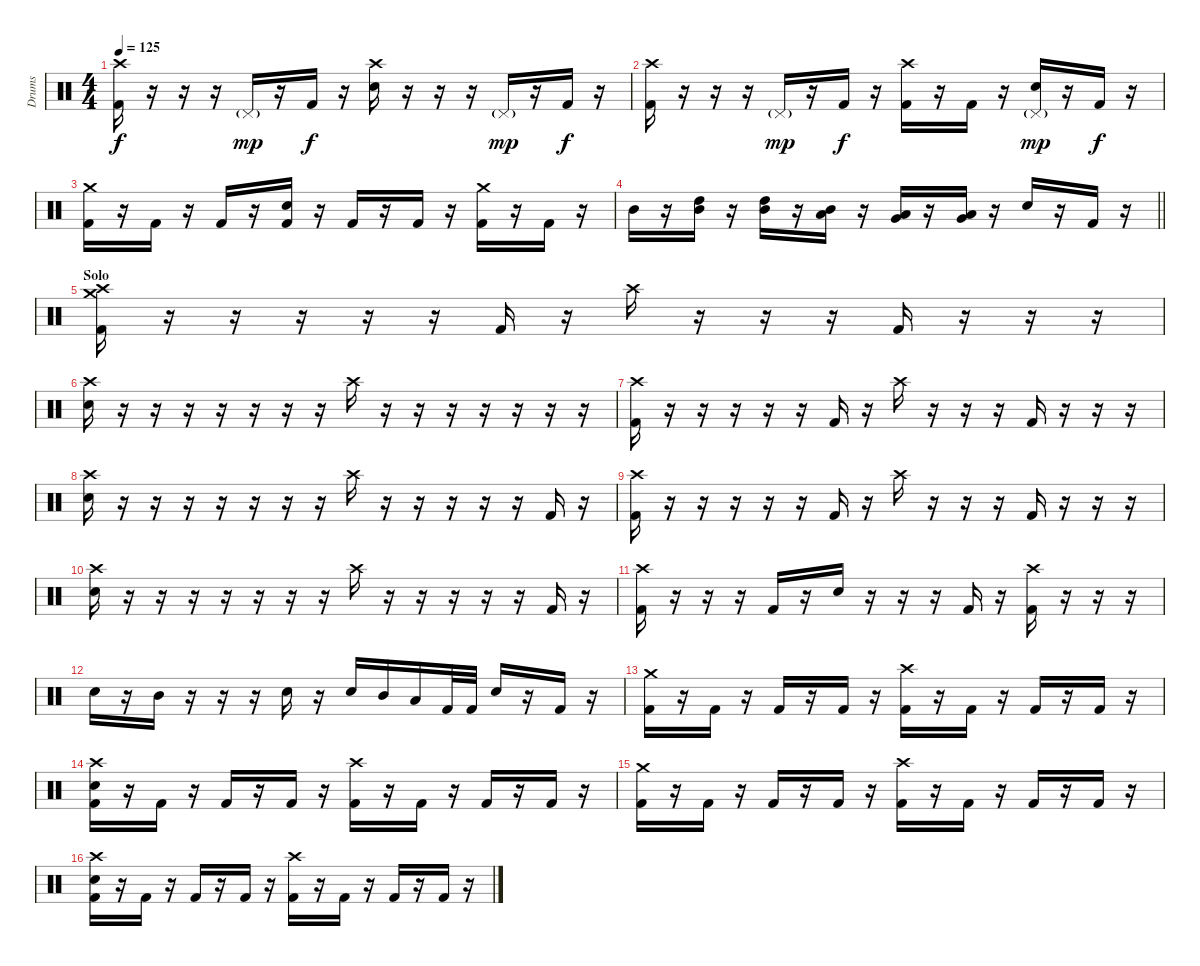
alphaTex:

\track ("Drums" "Drums") {instrument percussion}
\staff {score}
\articulation defaults
\ts (4 4)
\tempo 125
\clef neutral
\ks c
("Crash high (hit)" "Kick (hit) 2").16{dy f} r.16 r.16 r.16 "Pedal Hi-Hat (hit)"{g}.16{dy mp} r.16 "Kick (hit) 2".16{dy f} r.16 ("Crash high (hit)" "Electric Snare (hit)").16 r.16 r.16 r.16 "Pedal Hi-Hat (hit)"{g}.16{dy mp} r.16 "Kick (hit) 2".16{dy f} r.16 |
("Crash high (hit)" "Kick (hit) 2").16 r.16 r.16 r.16 "Pedal Hi-Hat (hit)"{g}.16{dy mp} r.16 "Kick (hit) 2".16{dy f} r.16 ("Crash high (hit)" "Kick (hit) 2").16 r.16 "Kick (hit) 2".16 r.16 ("Pedal Hi-Hat (hit)"{g} "Electric Snare (hit)").16{dy mp} r.16 "Kick (hit) 2".16{dy f} r.16 |
("Crash medium (hit)" "Kick (hit) 2").16 r.16 "Kick (hit) 2".16 r.16 "Kick (hit) 2".16 r.16 ("Electric Snare (hit)" "Kick (hit) 2").16 r.16 "Kick (hit) 2".16 r.16 "Kick (hit) 2".16 r.16 ("Crash medium (hit)" "Kick (hit) 2").16 r.16 "Kick (hit) 2".16 r.16 |
\barLineRight lightlight "Mid Tom (hit)".16
r.16 ("High Tom (hit)" "Mid Tom (hit)").16 r.16 ("High Tom (hit)" "Mid Tom (hit)").16 r.16 ("Mid Tom (hit)" "Low Tom (hit)").16 r.16 ("Low Tom (hit)" "Very Low Tom (hit)").16 r.16 ("Low Tom (hit)" "Very Low Tom (hit)").16 r.16 "Electric Snare (hit)".16 r.16 "Kick (hit) 2".16 r.16 |
\section ("" "Solo ")
("Crash medium (hit)" "Crash high (hit)" "Kick (hit) 2").16 r.16 r.16 r.16 r.16 r.16 "Kick (hit) 2".16 r.16 "Crash high (hit)".16 r.16 r.16 r.16 "Kick (hit) 2".16 r.16 r.16 r.16 |
("Crash high (hit)" "Electric Snare (hit)").16 r.16 r.16 r.16 r.16 r.16 r.16 r.16 "Crash high (hit)".16 r.16 r.16 r.16 r.16 r.16 r.16 r.16 |
("Crash high (hit)" "Kick (hit) 2").16 r.16 r.16 r.16 r.16 r.16 "Kick (hit) 2".16 r.16 "Crash high (hit)".16 r.16 r.16 r.16 "Kick (hit) 2".16 r.16 r.16 r.16 |
("Crash high (hit)" "Electric Snare (hit)").16 r.16 r.16 r.16 r.16 r.16 r.16 r.16 "Crash high (hit)".16 r.16 r.16 r.16 r.16 r.16 "Kick (hit) 2".16 r.16 |
("Crash high (hit)" "Kick (hit) 2").16 r.16 r.16 r.16 r.16 r.16 "Kick (hit) 2".16 r.16 "Crash high (hit)".16 r.16 r.16 r.16 "Kick (hit) 2".16 r.16 r.16 r.16 |
("Crash high (hit)" "Electric Snare (hit)").16 r.16 r.16 r.16 r.16 r.16 r.16 r.16 "Crash high (hit)".16 r.16 r.16 r.16 r.16 r.16 "Kick (hit) 2".16 r.16 |
("Crash high (hit)" "Kick (hit) 2").16 r.16 r.16 r.16 "Kick (hit) 2".16 r.16 "Electric Snare (hit)".16 r.16 r.16 r.16 "Kick (hit) 2".16 r.16 ("Crash high (hit)" "Kick (hit) 2").16 r.16 r.16 r.16 |
"Electric Snare (hit)".16 r.16 "Mid Tom (hit)".16 r.16 r.16 r.16 "Electric Snare (hit)".16 r.16 "Electric Snare (hit)".16 "Mid Tom (hit)".16 "Low Tom (hit)".16 "Kick (hit) 2".32 "Kick (hit) 2".32 "Electric Snare (hit)".16 r.16 "Kick (hit) 2".16 r.16 |
("Crash medium (hit)" "Kick (hit) 2").16 r.16 "Kick (hit) 2".16 r.16 "Kick (hit) 2".16 r.16 "Kick (hit) 2".16 r.16 ("Crash high (hit)" "Kick (hit) 2").16 r.16 "Kick (hit) 2".16 r.16 "Kick (hit) 2".16 r.16 "Kick (hit) 2".16 r.16 |
("Crash high (hit)" "Electric Snare (hit)" "Kick (hit) 2").16 r.16 "Kick (hit) 2".16 r.16 "Kick (hit) 2".16 r.16 "Kick (hit) 2".16 r.16 ("Crash high (hit)" "Kick (hit) 2").16 r.16 "Kick (hit) 2".16 r.16 "Kick (hit) 2".16 r.16 "Kick (hit) 2".16 r.16 |
("Crash medium (hit)" "Kick (hit) 2").16 r.16 "Kick (hit) 2".16 r.16 "Kick (hit) 2".16 r.16 "Kick (hit) 2".16 r.16 ("Crash high (hit)" "Kick (hit) 2").16 r.16 "Kick (hit) 2".16 r.16 "Kick (hit) 2".16 r.16 "Kick (hit) 2".16 r.16 |
("Crash high (hit)" "Electric Snare (hit)" "Kick (hit) 2").16 r.16 "Kick (hit) 2".16 r.16 "Kick (hit) 2".16 r.16 "Kick (hit) 2".16 r.16 ("Crash high (hit)" "Kick (hit) 2").16 r.16 "Kick (hit) 2".16 r.16 "Kick (hit) 2".16 r.16 "Kick (hit) 2".16 r.16
